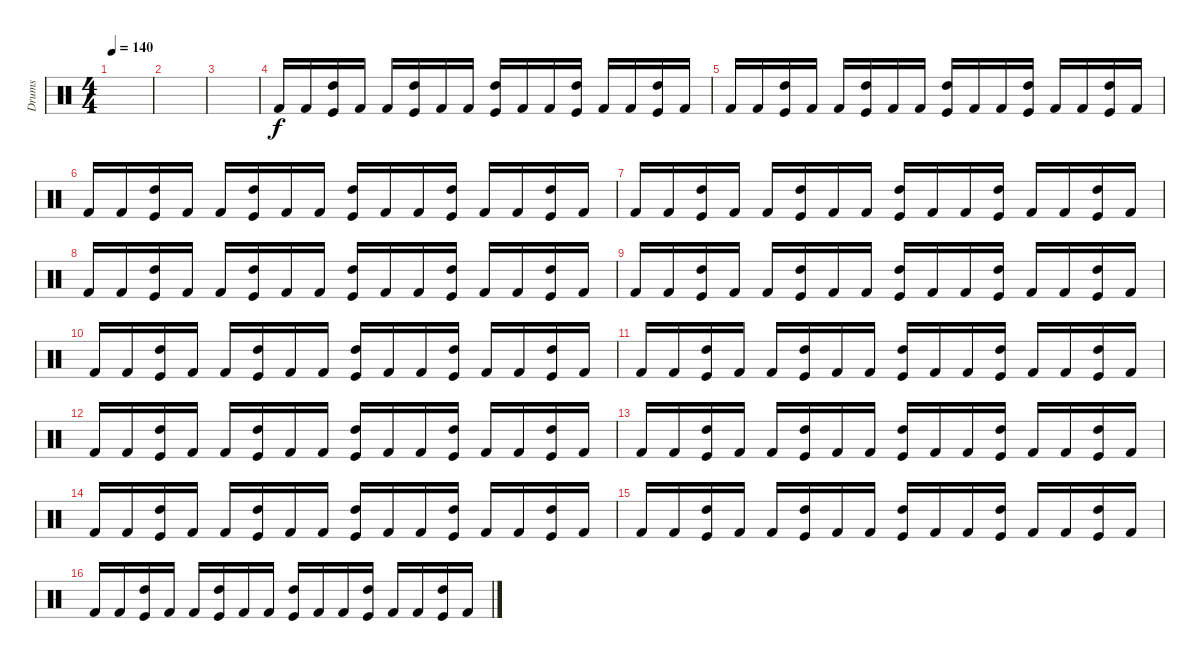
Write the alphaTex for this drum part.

\track ("Drums" "Drums") {instrument percussion}
\staff {score}
\articulation defaults
\ts (4 4)
\tempo 140
\clef neutral
\ks c
|
|
|
"Kick (hit) 2".16 "Kick (hit) 2".16 ("Kick (hit)" "High Tom (hit)").16 "Kick (hit) 2".16 "Kick (hit) 2".16 ("Kick (hit)" "High Tom (hit)").16 "Kick (hit) 2".16 "Kick (hit) 2".16 ("Kick (hit)" "High Tom (hit)").16 "Kick (hit) 2".16 "Kick (hit) 2".16 ("Kick (hit)" "High Tom (hit)").16 "Kick (hit) 2".16 "Kick (hit) 2".16 ("Kick (hit)" "High Tom (hit)").16 "Kick (hit) 2".16 |
"Kick (hit) 2".16 "Kick (hit) 2".16 ("Kick (hit)" "High Tom (hit)").16 "Kick (hit) 2".16 "Kick (hit) 2".16 ("Kick (hit)" "High Tom (hit)").16 "Kick (hit) 2".16 "Kick (hit) 2".16 ("Kick (hit)" "High Tom (hit)").16 "Kick (hit) 2".16 "Kick (hit) 2".16 ("Kick (hit)" "High Tom (hit)").16 "Kick (hit) 2".16 "Kick (hit) 2".16 ("Kick (hit)" "High Tom (hit)").16 "Kick (hit) 2".16 |
"Kick (hit) 2".16 "Kick (hit) 2".16 ("Kick (hit)" "High Tom (hit)").16 "Kick (hit) 2".16 "Kick (hit) 2".16 ("Kick (hit)" "High Tom (hit)").16 "Kick (hit) 2".16 "Kick (hit) 2".16 ("Kick (hit)" "High Tom (hit)").16 "Kick (hit) 2".16 "Kick (hit) 2".16 ("Kick (hit)" "High Tom (hit)").16 "Kick (hit) 2".16 "Kick (hit) 2".16 ("Kick (hit)" "High Tom (hit)").16 "Kick (hit) 2".16 |
"Kick (hit) 2".16 "Kick (hit) 2".16 ("Kick (hit)" "High Tom (hit)").16 "Kick (hit) 2".16 "Kick (hit) 2".16 ("Kick (hit)" "High Tom (hit)").16 "Kick (hit) 2".16 "Kick (hit) 2".16 ("Kick (hit)" "High Tom (hit)").16 "Kick (hit) 2".16 "Kick (hit) 2".16 ("Kick (hit)" "High Tom (hit)").16 "Kick (hit) 2".16 "Kick (hit) 2".16 ("Kick (hit)" "High Tom (hit)").16 "Kick (hit) 2".16 |
"Kick (hit) 2".16 "Kick (hit) 2".16 ("Kick (hit)" "High Tom (hit)").16 "Kick (hit) 2".16 "Kick (hit) 2".16 ("Kick (hit)" "High Tom (hit)").16 "Kick (hit) 2".16 "Kick (hit) 2".16 ("Kick (hit)" "High Tom (hit)").16 "Kick (hit) 2".16 "Kick (hit) 2".16 ("Kick (hit)" "High Tom (hit)").16 "Kick (hit) 2".16 "Kick (hit) 2".16 ("Kick (hit)" "High Tom (hit)").16 "Kick (hit) 2".16 |
"Kick (hit) 2".16 "Kick (hit) 2".16 ("Kick (hit)" "High Tom (hit)").16 "Kick (hit) 2".16 "Kick (hit) 2".16 ("Kick (hit)" "High Tom (hit)").16 "Kick (hit) 2".16 "Kick (hit) 2".16 ("Kick (hit)" "High Tom (hit)").16 "Kick (hit) 2".16 "Kick (hit) 2".16 ("Kick (hit)" "High Tom (hit)").16 "Kick (hit) 2".16 "Kick (hit) 2".16 ("Kick (hit)" "High Tom (hit)").16 "Kick (hit) 2".16 |
"Kick (hit) 2".16 "Kick (hit) 2".16 ("Kick (hit)" "High Tom (hit)").16 "Kick (hit) 2".16 "Kick (hit) 2".16 ("Kick (hit)" "High Tom (hit)").16 "Kick (hit) 2".16 "Kick (hit) 2".16 ("Kick (hit)" "High Tom (hit)").16 "Kick (hit) 2".16 "Kick (hit) 2".16 ("Kick (hit)" "High Tom (hit)").16 "Kick (hit) 2".16 "Kick (hit) 2".16 ("Kick (hit)" "High Tom (hit)").16 "Kick (hit) 2".16 |
"Kick (hit) 2".16 "Kick (hit) 2".16 ("Kick (hit)" "High Tom (hit)").16 "Kick (hit) 2".16 "Kick (hit) 2".16 ("Kick (hit)" "High Tom (hit)").16 "Kick (hit) 2".16 "Kick (hit) 2".16 ("Kick (hit)" "High Tom (hit)").16 "Kick (hit) 2".16 "Kick (hit) 2".16 ("Kick (hit)" "High Tom (hit)").16 "Kick (hit) 2".16 "Kick (hit) 2".16 ("Kick (hit)" "High Tom (hit)").16 "Kick (hit) 2".16 |
"Kick (hit) 2".16 "Kick (hit) 2".16 ("Kick (hit)" "High Tom (hit)").16 "Kick (hit) 2".16 "Kick (hit) 2".16 ("Kick (hit)" "High Tom (hit)").16 "Kick (hit) 2".16 "Kick (hit) 2".16 ("Kick (hit)" "High Tom (hit)").16 "Kick (hit) 2".16 "Kick (hit) 2".16 ("Kick (hit)" "High Tom (hit)").16 "Kick (hit) 2".16 "Kick (hit) 2".16 ("Kick (hit)" "High Tom (hit)").16 "Kick (hit) 2".16 |
"Kick (hit) 2".16 "Kick (hit) 2".16 ("Kick (hit)" "High Tom (hit)").16 "Kick (hit) 2".16 "Kick (hit) 2".16 ("Kick (hit)" "High Tom (hit)").16 "Kick (hit) 2".16 "Kick (hit) 2".16 ("Kick (hit)" "High Tom (hit)").16 "Kick (hit) 2".16 "Kick (hit) 2".16 ("Kick (hit)" "High Tom (hit)").16 "Kick (hit) 2".16 "Kick (hit) 2".16 ("Kick (hit)" "High Tom (hit)").16 "Kick (hit) 2".16 |
"Kick (hit) 2".16 "Kick (hit) 2".16 ("Kick (hit)" "High Tom (hit)").16 "Kick (hit) 2".16 "Kick (hit) 2".16 ("Kick (hit)" "High Tom (hit)").16 "Kick (hit) 2".16 "Kick (hit) 2".16 ("Kick (hit)" "High Tom (hit)").16 "Kick (hit) 2".16 "Kick (hit) 2".16 ("Kick (hit)" "High Tom (hit)").16 "Kick (hit) 2".16 "Kick (hit) 2".16 ("Kick (hit)" "High Tom (hit)").16 "Kick (hit) 2".16 |
"Kick (hit) 2".16 "Kick (hit) 2".16 ("Kick (hit)" "High Tom (hit)").16 "Kick (hit) 2".16 "Kick (hit) 2".16 ("Kick (hit)" "High Tom (hit)").16 "Kick (hit) 2".16 "Kick (hit) 2".16 ("Kick (hit)" "High Tom (hit)").16 "Kick (hit) 2".16 "Kick (hit) 2".16 ("Kick (hit)" "High Tom (hit)").16 "Kick (hit) 2".16 "Kick (hit) 2".16 ("Kick (hit)" "High Tom (hit)").16 "Kick (hit) 2".16 |
"Kick (hit) 2".16 "Kick (hit) 2".16 ("Kick (hit)" "High Tom (hit)").16 "Kick (hit) 2".16 "Kick (hit) 2".16 ("Kick (hit)" "High Tom (hit)").16 "Kick (hit) 2".16 "Kick (hit) 2".16 ("Kick (hit)" "High Tom (hit)").16 "Kick (hit) 2".16 "Kick (hit) 2".16 ("Kick (hit)" "High Tom (hit)").16 "Kick (hit) 2".16 "Kick (hit) 2".16 ("Kick (hit)" "High Tom (hit)").16 "Kick (hit) 2".16
